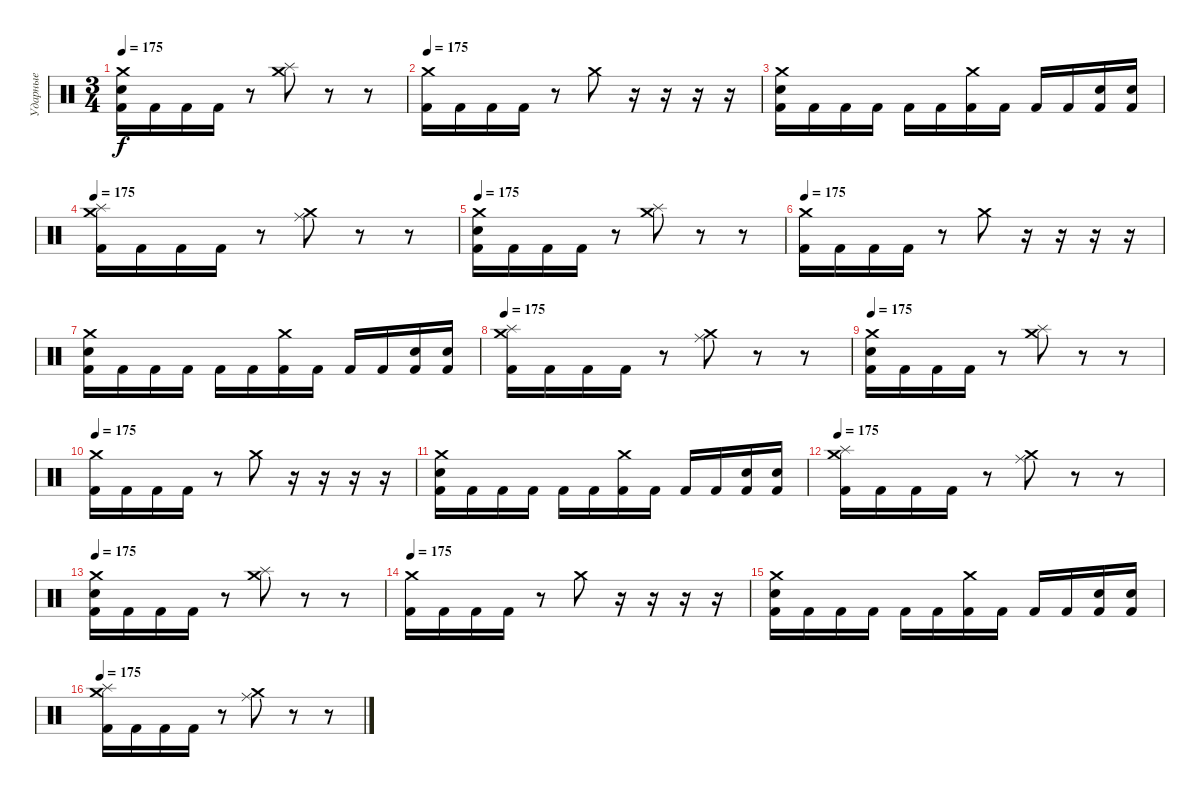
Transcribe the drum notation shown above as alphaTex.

\track ("Ударные" "Ударные") {instrument percussion}
\staff {score}
\articulation defaults
\ts (3 4)
\tempo 175
\clef neutral
\ks c
("Crash medium (hit)" "Electric Snare (hit)" "Kick (hit) 2").16{dy f} "Kick (hit) 2".16 "Kick (hit) 2".16 "Kick (hit) 2".16 r.8 ("Crash medium (hit)" "Splash (hit)").8 r.8 r.8 |
\tempo 175
("Crash medium (hit)" "Kick (hit) 2").16 "Kick (hit) 2".16 "Kick (hit) 2".16 "Kick (hit) 2".16 r.8 "Crash medium (hit)".8 r.16 r.16 r.16 r.16 |
("Crash medium (hit)" "Electric Snare (hit)" "Kick (hit) 2").16 "Kick (hit) 2".16 "Kick (hit) 2".16 "Kick (hit) 2".16 "Kick (hit) 2".16 "Kick (hit) 2".16 ("Crash medium (hit)" "Kick (hit) 2").16 "Kick (hit) 2".16 "Kick (hit) 2".16 "Kick (hit) 2".16 ("Electric Snare (hit)" "Kick (hit) 2").16 ("Electric Snare (hit)" "Kick (hit) 2").16 |
\tempo 175
("Crash medium (hit)" "Splash (hit)" "Kick (hit) 2").16 "Kick (hit) 2".16 "Kick (hit) 2".16 "Kick (hit) 2".16 r.8 ("Crash medium (hit)" "Ride (middle)").8 r.8 r.8 |
\tempo 175
("Crash medium (hit)" "Electric Snare (hit)" "Kick (hit) 2").16 "Kick (hit) 2".16 "Kick (hit) 2".16 "Kick (hit) 2".16 r.8 ("Crash medium (hit)" "Splash (hit)").8 r.8 r.8 |
\tempo 175
("Crash medium (hit)" "Kick (hit) 2").16 "Kick (hit) 2".16 "Kick (hit) 2".16 "Kick (hit) 2".16 r.8 "Crash medium (hit)".8 r.16 r.16 r.16 r.16 |
("Crash medium (hit)" "Electric Snare (hit)" "Kick (hit) 2").16 "Kick (hit) 2".16 "Kick (hit) 2".16 "Kick (hit) 2".16 "Kick (hit) 2".16 "Kick (hit) 2".16 ("Crash medium (hit)" "Kick (hit) 2").16 "Kick (hit) 2".16 "Kick (hit) 2".16 "Kick (hit) 2".16 ("Electric Snare (hit)" "Kick (hit) 2").16 ("Electric Snare (hit)" "Kick (hit) 2").16 |
\tempo 175
("Crash medium (hit)" "Splash (hit)" "Kick (hit) 2").16 "Kick (hit) 2".16 "Kick (hit) 2".16 "Kick (hit) 2".16 r.8 ("Crash medium (hit)" "Ride (middle)").8 r.8 r.8 |
\tempo 175
("Crash medium (hit)" "Electric Snare (hit)" "Kick (hit) 2").16 "Kick (hit) 2".16 "Kick (hit) 2".16 "Kick (hit) 2".16 r.8 ("Crash medium (hit)" "Splash (hit)").8 r.8 r.8 |
\tempo 175
("Crash medium (hit)" "Kick (hit) 2").16 "Kick (hit) 2".16 "Kick (hit) 2".16 "Kick (hit) 2".16 r.8 "Crash medium (hit)".8 r.16 r.16 r.16 r.16 |
("Crash medium (hit)" "Electric Snare (hit)" "Kick (hit) 2").16 "Kick (hit) 2".16 "Kick (hit) 2".16 "Kick (hit) 2".16 "Kick (hit) 2".16 "Kick (hit) 2".16 ("Crash medium (hit)" "Kick (hit) 2").16 "Kick (hit) 2".16 "Kick (hit) 2".16 "Kick (hit) 2".16 ("Electric Snare (hit)" "Kick (hit) 2").16 ("Electric Snare (hit)" "Kick (hit) 2").16 |
\tempo 175
("Crash medium (hit)" "Splash (hit)" "Kick (hit) 2").16 "Kick (hit) 2".16 "Kick (hit) 2".16 "Kick (hit) 2".16 r.8 ("Crash medium (hit)" "Ride (middle)").8 r.8 r.8 |
\tempo 175
("Crash medium (hit)" "Electric Snare (hit)" "Kick (hit) 2").16 "Kick (hit) 2".16 "Kick (hit) 2".16 "Kick (hit) 2".16 r.8 ("Crash medium (hit)" "Splash (hit)").8 r.8 r.8 |
\tempo 175
("Crash medium (hit)" "Kick (hit) 2").16 "Kick (hit) 2".16 "Kick (hit) 2".16 "Kick (hit) 2".16 r.8 "Crash medium (hit)".8 r.16 r.16 r.16 r.16 |
("Crash medium (hit)" "Electric Snare (hit)" "Kick (hit) 2").16 "Kick (hit) 2".16 "Kick (hit) 2".16 "Kick (hit) 2".16 "Kick (hit) 2".16 "Kick (hit) 2".16 ("Crash medium (hit)" "Kick (hit) 2").16 "Kick (hit) 2".16 "Kick (hit) 2".16 "Kick (hit) 2".16 ("Electric Snare (hit)" "Kick (hit) 2").16 ("Electric Snare (hit)" "Kick (hit) 2").16 |
\tempo 175
("Crash medium (hit)" "Splash (hit)" "Kick (hit) 2").16 "Kick (hit) 2".16 "Kick (hit) 2".16 "Kick (hit) 2".16 r.8 ("Crash medium (hit)" "Ride (middle)").8 r.8 r.8
